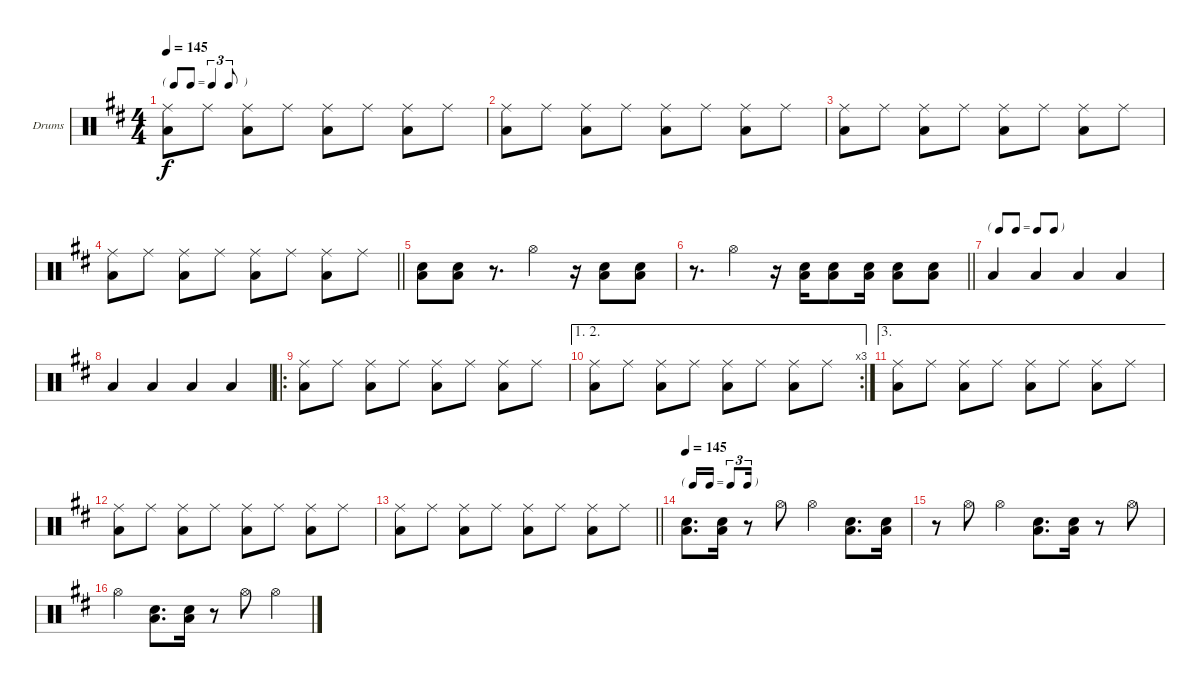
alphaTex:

\bracketExtendMode groupsimilarinstruments
\firstSystemTrackNameOrientation horizontal
\otherSystemsTrackNameOrientation horizontal
\track ("Drumkit" "Drums") {mute instrument percussion}
\staff {score}
\articulation defaults
\ts (4 4)
\tf triplet8th
\tempo 145
\clef neutral
\ks d
("Low Tom (hit)" "Ride (middle)").8{dy f} "Ride (middle)".8 ("Low Tom (hit)" "Ride (middle)").8 "Ride (middle)".8 ("Low Tom (hit)" "Ride (middle)").8 "Ride (middle)".8 ("Low Tom (hit)" "Ride (middle)").8 "Ride (middle)".8 |
("Low Tom (hit)" "Ride (middle)").8 "Ride (middle)".8 ("Low Tom (hit)" "Ride (middle)").8 "Ride (middle)".8 ("Low Tom (hit)" "Ride (middle)").8 "Ride (middle)".8 ("Low Tom (hit)" "Ride (middle)").8 "Ride (middle)".8 |
("Low Tom (hit)" "Ride (middle)").8 "Ride (middle)".8 ("Low Tom (hit)" "Ride (middle)").8 "Ride (middle)".8 ("Low Tom (hit)" "Ride (middle)").8 "Ride (middle)".8 ("Low Tom (hit)" "Ride (middle)").8 "Ride (middle)".8 |
\barLineRight lightlight
("Low Tom (hit)" "Ride (middle)").8 "Ride (middle)".8 ("Low Tom (hit)" "Ride (middle)").8 "Ride (middle)".8 ("Low Tom (hit)" "Ride (middle)").8 "Ride (middle)".8 ("Low Tom (hit)" "Ride (middle)").8 "Ride (middle)".8 |
("Snare (hit) 2" "Low Tom (hit)").8 ("Snare (hit) 2" "Low Tom (hit)").8 r.8{d} "Hi-Hat (open)".4 r.16 ("Snare (hit) 2" "Low Tom (hit)").8 ("Snare (hit) 2" "Low Tom (hit)").8 |
\barLineRight lightlight
r.8{d} "Hi-Hat (open)".4 r.16 ("Snare (hit) 2" "Low Tom (hit)").16 ("Snare (hit) 2" "Low Tom (hit)").8 ("Snare (hit) 2" "Low Tom (hit)").16 ("Snare (hit) 2" "Low Tom (hit)").8 ("Snare (hit) 2" "Low Tom (hit)").8 |
\tf none "Low Tom (hit)".4 "Low Tom (hit)".4 "Low Tom (hit)".4 "Low Tom (hit)".4
|
"Low Tom (hit)".4 "Low Tom (hit)".4 "Low Tom (hit)".4 "Low Tom (hit)".4 |
\ro
("Low Tom (hit)" "Ride (middle)").8 "Ride (middle)".8 ("Low Tom (hit)" "Ride (middle)").8 "Ride (middle)".8 ("Low Tom (hit)" "Ride (middle)").8 "Ride (middle)".8 ("Low Tom (hit)" "Ride (middle)").8 "Ride (middle)".8 |
\ae (1 2)
\rc 3
("Low Tom (hit)" "Ride (middle)").8 "Ride (middle)".8 ("Low Tom (hit)" "Ride (middle)").8 "Ride (middle)".8 ("Low Tom (hit)" "Ride (middle)").8 "Ride (middle)".8 ("Low Tom (hit)" "Ride (middle)").8 "Ride (middle)".8 |
\ae 3
("Low Tom (hit)" "Ride (middle)").8 "Ride (middle)".8 ("Low Tom (hit)" "Ride (middle)").8 "Ride (middle)".8 ("Low Tom (hit)" "Ride (middle)").8 "Ride (middle)".8 ("Low Tom (hit)" "Ride (middle)").8 "Ride (middle)".8 |
("Low Tom (hit)" "Ride (middle)").8 "Ride (middle)".8 ("Low Tom (hit)" "Ride (middle)").8 "Ride (middle)".8 ("Low Tom (hit)" "Ride (middle)").8 "Ride (middle)".8 ("Low Tom (hit)" "Ride (middle)").8 "Ride (middle)".8 |
\barLineRight lightlight
("Low Tom (hit)" "Ride (middle)").8 "Ride (middle)".8 ("Low Tom (hit)" "Ride (middle)").8 "Ride (middle)".8 ("Low Tom (hit)" "Ride (middle)").8 "Ride (middle)".8 ("Low Tom (hit)" "Ride (middle)").8 "Ride (middle)".8 |
\tf triplet16th
\tempo 145
("Snare (hit) 2" "Low Tom (hit)").8{d} ("Snare (hit) 2" "Low Tom (hit)").16 r.8 "Hi-Hat (open)".8 "Hi-Hat (open)".4 ("Snare (hit) 2" "Low Tom (hit)").8{d} ("Snare (hit) 2" "Low Tom (hit)").16 |
r.8 "Hi-Hat (open)".8 "Hi-Hat (open)".4 ("Snare (hit) 2" "Low Tom (hit)").8{d} ("Snare (hit) 2" "Low Tom (hit)").16 r.8 "Hi-Hat (open)".8 |
"Hi-Hat (open)".4 ("Snare (hit) 2" "Low Tom (hit)").8{d} ("Snare (hit) 2" "Low Tom (hit)").16 r.8 "Hi-Hat (open)".8 "Hi-Hat (open)".4
